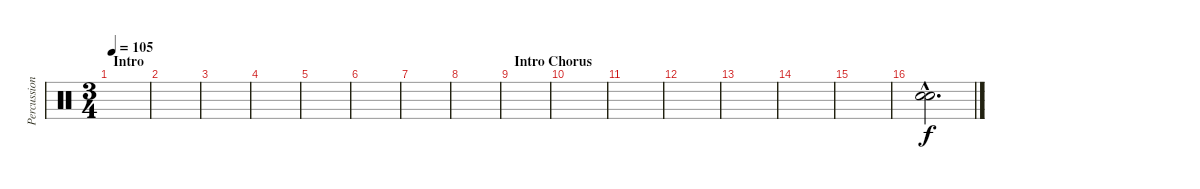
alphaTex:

\track ("Percussion" "Percussion") {instrument percussion}
\staff {score}
\articulation defaults
\ts (3 4)
\section ("" "Intro")
\tempo 105
\clef neutral
\ks c
|
|
|
|
|
|
|
|
\section ("" "Intro Chorus")
|
|
|
|
|
|
|
("Snare (hit) 2"{hac} "Snare (hit) 2"{hac}).2{d bd 240}
